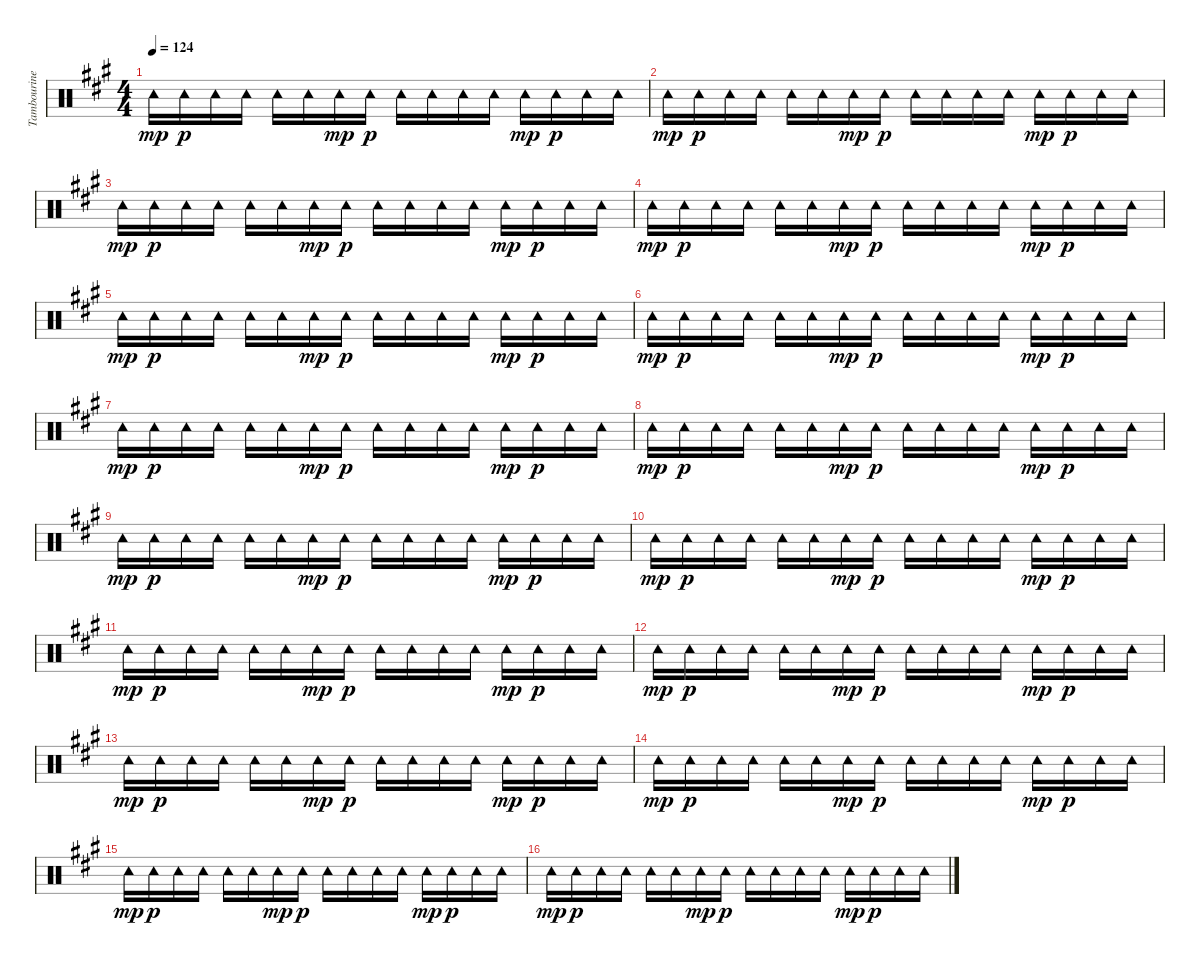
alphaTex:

\track ("Tambourine" "Tambourine") {instrument percussion}
\staff {score}
\articulation defaults
\ts (4 4)
\tempo 124
\clef neutral
\ks a "Tambourine (hit)".16{dy mp} "Tambourine (hit)".16{dy p} "Tambourine (hit)".16 "Tambourine (hit)".16 "Tambourine (hit)".16 "Tambourine (hit)".16 "Tambourine (hit)".16{dy mp} "Tambourine (hit)".16{dy p} "Tambourine (hit)".16 "Tambourine (hit)".16 "Tambourine (hit)".16 "Tambourine (hit)".16 "Tambourine (hit)".16{dy mp} "Tambourine (hit)".16{dy p} "Tambourine (hit)".16 "Tambourine (hit)".16
|
"Tambourine (hit)".16{dy mp} "Tambourine (hit)".16{dy p} "Tambourine (hit)".16 "Tambourine (hit)".16 "Tambourine (hit)".16 "Tambourine (hit)".16 "Tambourine (hit)".16{dy mp} "Tambourine (hit)".16{dy p} "Tambourine (hit)".16 "Tambourine (hit)".16 "Tambourine (hit)".16 "Tambourine (hit)".16 "Tambourine (hit)".16{dy mp} "Tambourine (hit)".16{dy p} "Tambourine (hit)".16 "Tambourine (hit)".16 |
"Tambourine (hit)".16{dy mp} "Tambourine (hit)".16{dy p} "Tambourine (hit)".16 "Tambourine (hit)".16 "Tambourine (hit)".16 "Tambourine (hit)".16 "Tambourine (hit)".16{dy mp} "Tambourine (hit)".16{dy p} "Tambourine (hit)".16 "Tambourine (hit)".16 "Tambourine (hit)".16 "Tambourine (hit)".16 "Tambourine (hit)".16{dy mp} "Tambourine (hit)".16{dy p} "Tambourine (hit)".16 "Tambourine (hit)".16 |
"Tambourine (hit)".16{dy mp} "Tambourine (hit)".16{dy p} "Tambourine (hit)".16 "Tambourine (hit)".16 "Tambourine (hit)".16 "Tambourine (hit)".16 "Tambourine (hit)".16{dy mp} "Tambourine (hit)".16{dy p} "Tambourine (hit)".16 "Tambourine (hit)".16 "Tambourine (hit)".16 "Tambourine (hit)".16 "Tambourine (hit)".16{dy mp} "Tambourine (hit)".16{dy p} "Tambourine (hit)".16 "Tambourine (hit)".16 |
"Tambourine (hit)".16{dy mp} "Tambourine (hit)".16{dy p} "Tambourine (hit)".16 "Tambourine (hit)".16 "Tambourine (hit)".16 "Tambourine (hit)".16 "Tambourine (hit)".16{dy mp} "Tambourine (hit)".16{dy p} "Tambourine (hit)".16 "Tambourine (hit)".16 "Tambourine (hit)".16 "Tambourine (hit)".16 "Tambourine (hit)".16{dy mp} "Tambourine (hit)".16{dy p} "Tambourine (hit)".16 "Tambourine (hit)".16 |
"Tambourine (hit)".16{dy mp} "Tambourine (hit)".16{dy p} "Tambourine (hit)".16 "Tambourine (hit)".16 "Tambourine (hit)".16 "Tambourine (hit)".16 "Tambourine (hit)".16{dy mp} "Tambourine (hit)".16{dy p} "Tambourine (hit)".16 "Tambourine (hit)".16 "Tambourine (hit)".16 "Tambourine (hit)".16 "Tambourine (hit)".16{dy mp} "Tambourine (hit)".16{dy p} "Tambourine (hit)".16 "Tambourine (hit)".16 |
"Tambourine (hit)".16{dy mp} "Tambourine (hit)".16{dy p} "Tambourine (hit)".16 "Tambourine (hit)".16 "Tambourine (hit)".16 "Tambourine (hit)".16 "Tambourine (hit)".16{dy mp} "Tambourine (hit)".16{dy p} "Tambourine (hit)".16 "Tambourine (hit)".16 "Tambourine (hit)".16 "Tambourine (hit)".16 "Tambourine (hit)".16{dy mp} "Tambourine (hit)".16{dy p} "Tambourine (hit)".16 "Tambourine (hit)".16 |
"Tambourine (hit)".16{dy mp} "Tambourine (hit)".16{dy p} "Tambourine (hit)".16 "Tambourine (hit)".16 "Tambourine (hit)".16 "Tambourine (hit)".16 "Tambourine (hit)".16{dy mp} "Tambourine (hit)".16{dy p} "Tambourine (hit)".16 "Tambourine (hit)".16 "Tambourine (hit)".16 "Tambourine (hit)".16 "Tambourine (hit)".16{dy mp} "Tambourine (hit)".16{dy p} "Tambourine (hit)".16 "Tambourine (hit)".16 |
"Tambourine (hit)".16{dy mp} "Tambourine (hit)".16{dy p} "Tambourine (hit)".16 "Tambourine (hit)".16 "Tambourine (hit)".16 "Tambourine (hit)".16 "Tambourine (hit)".16{dy mp} "Tambourine (hit)".16{dy p} "Tambourine (hit)".16 "Tambourine (hit)".16 "Tambourine (hit)".16 "Tambourine (hit)".16 "Tambourine (hit)".16{dy mp} "Tambourine (hit)".16{dy p} "Tambourine (hit)".16 "Tambourine (hit)".16 |
"Tambourine (hit)".16{dy mp} "Tambourine (hit)".16{dy p} "Tambourine (hit)".16 "Tambourine (hit)".16 "Tambourine (hit)".16 "Tambourine (hit)".16 "Tambourine (hit)".16{dy mp} "Tambourine (hit)".16{dy p} "Tambourine (hit)".16 "Tambourine (hit)".16 "Tambourine (hit)".16 "Tambourine (hit)".16 "Tambourine (hit)".16{dy mp} "Tambourine (hit)".16{dy p} "Tambourine (hit)".16 "Tambourine (hit)".16 |
"Tambourine (hit)".16{dy mp} "Tambourine (hit)".16{dy p} "Tambourine (hit)".16 "Tambourine (hit)".16 "Tambourine (hit)".16 "Tambourine (hit)".16 "Tambourine (hit)".16{dy mp} "Tambourine (hit)".16{dy p} "Tambourine (hit)".16 "Tambourine (hit)".16 "Tambourine (hit)".16 "Tambourine (hit)".16 "Tambourine (hit)".16{dy mp} "Tambourine (hit)".16{dy p} "Tambourine (hit)".16 "Tambourine (hit)".16 |
"Tambourine (hit)".16{dy mp} "Tambourine (hit)".16{dy p} "Tambourine (hit)".16 "Tambourine (hit)".16 "Tambourine (hit)".16 "Tambourine (hit)".16 "Tambourine (hit)".16{dy mp} "Tambourine (hit)".16{dy p} "Tambourine (hit)".16 "Tambourine (hit)".16 "Tambourine (hit)".16 "Tambourine (hit)".16 "Tambourine (hit)".16{dy mp} "Tambourine (hit)".16{dy p} "Tambourine (hit)".16 "Tambourine (hit)".16 |
"Tambourine (hit)".16{dy mp} "Tambourine (hit)".16{dy p} "Tambourine (hit)".16 "Tambourine (hit)".16 "Tambourine (hit)".16 "Tambourine (hit)".16 "Tambourine (hit)".16{dy mp} "Tambourine (hit)".16{dy p} "Tambourine (hit)".16 "Tambourine (hit)".16 "Tambourine (hit)".16 "Tambourine (hit)".16 "Tambourine (hit)".16{dy mp} "Tambourine (hit)".16{dy p} "Tambourine (hit)".16 "Tambourine (hit)".16 |
"Tambourine (hit)".16{dy mp} "Tambourine (hit)".16{dy p} "Tambourine (hit)".16 "Tambourine (hit)".16 "Tambourine (hit)".16 "Tambourine (hit)".16 "Tambourine (hit)".16{dy mp} "Tambourine (hit)".16{dy p} "Tambourine (hit)".16 "Tambourine (hit)".16 "Tambourine (hit)".16 "Tambourine (hit)".16 "Tambourine (hit)".16{dy mp} "Tambourine (hit)".16{dy p} "Tambourine (hit)".16 "Tambourine (hit)".16 |
"Tambourine (hit)".16{dy mp} "Tambourine (hit)".16{dy p} "Tambourine (hit)".16 "Tambourine (hit)".16 "Tambourine (hit)".16 "Tambourine (hit)".16 "Tambourine (hit)".16{dy mp} "Tambourine (hit)".16{dy p} "Tambourine (hit)".16 "Tambourine (hit)".16 "Tambourine (hit)".16 "Tambourine (hit)".16 "Tambourine (hit)".16{dy mp} "Tambourine (hit)".16{dy p} "Tambourine (hit)".16 "Tambourine (hit)".16 |
"Tambourine (hit)".16{dy mp} "Tambourine (hit)".16{dy p} "Tambourine (hit)".16 "Tambourine (hit)".16 "Tambourine (hit)".16 "Tambourine (hit)".16 "Tambourine (hit)".16{dy mp} "Tambourine (hit)".16{dy p} "Tambourine (hit)".16 "Tambourine (hit)".16 "Tambourine (hit)".16 "Tambourine (hit)".16 "Tambourine (hit)".16{dy mp} "Tambourine (hit)".16{dy p} "Tambourine (hit)".16 "Tambourine (hit)".16
